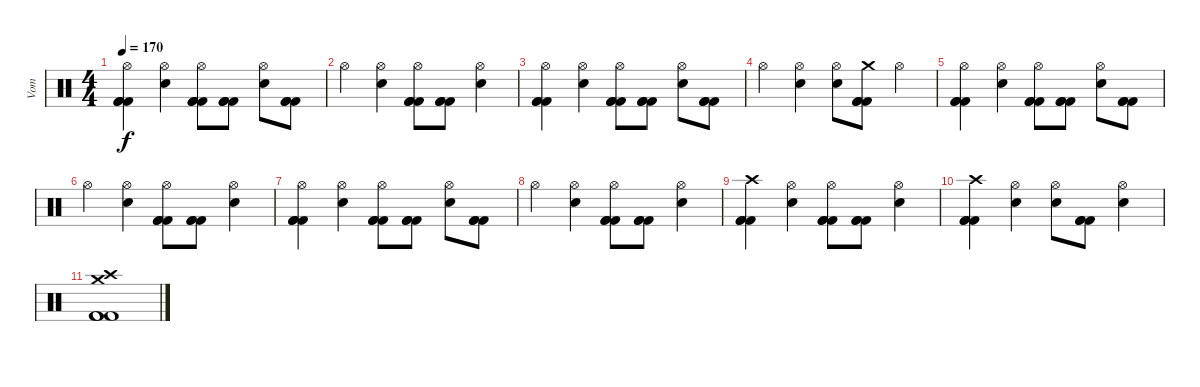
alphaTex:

\track ("Vom" "Vom") {instrument percussion}
\staff {score}
\articulation defaults
\ts (4 4)
\tempo 170
\clef neutral
\ks c
("Hi-Hat (open)" "Kick (hit) 2" "Kick (hit) 2" "Kick (hit) 2").4{dy f} ("Hi-Hat (open)" "Snare (hit) 2").4 ("Hi-Hat (open)" "Kick (hit) 2" "Kick (hit) 2" "Kick (hit) 2").8 ("Kick (hit) 2" "Kick (hit) 2" "Kick (hit) 2").8 ("Hi-Hat (open)" "Snare (hit) 2").8 ("Kick (hit) 2" "Kick (hit) 2" "Kick (hit) 2").8 |
"Hi-Hat (open)".4 ("Hi-Hat (open)" "Snare (hit) 2").4 ("Hi-Hat (open)" "Kick (hit) 2" "Kick (hit) 2" "Kick (hit) 2").8 ("Kick (hit) 2" "Kick (hit) 2" "Kick (hit) 2").8 ("Hi-Hat (open)" "Snare (hit) 2").4 |
("Hi-Hat (open)" "Kick (hit) 2" "Kick (hit) 2" "Kick (hit) 2").4 ("Hi-Hat (open)" "Snare (hit) 2").4 ("Hi-Hat (open)" "Kick (hit) 2" "Kick (hit) 2" "Kick (hit) 2").8 ("Kick (hit) 2" "Kick (hit) 2" "Kick (hit) 2").8 ("Hi-Hat (open)" "Snare (hit) 2").8 ("Kick (hit) 2" "Kick (hit) 2" "Kick (hit) 2").8 |
"Hi-Hat (open)".4 ("Hi-Hat (open)" "Snare (hit) 2").4 ("Hi-Hat (open)" "Snare (hit) 2").8 ("Crash medium (hit)" "Kick (hit) 2" "Kick (hit) 2" "Kick (hit) 2").8 "Hi-Hat (open)".4 |
("Hi-Hat (open)" "Kick (hit) 2" "Kick (hit) 2" "Kick (hit) 2").4 ("Hi-Hat (open)" "Snare (hit) 2").4 ("Hi-Hat (open)" "Kick (hit) 2" "Kick (hit) 2" "Kick (hit) 2").8 ("Kick (hit) 2" "Kick (hit) 2" "Kick (hit) 2").8 ("Hi-Hat (open)" "Snare (hit) 2").8 ("Kick (hit) 2" "Kick (hit) 2" "Kick (hit) 2").8 |
"Hi-Hat (open)".4 ("Hi-Hat (open)" "Snare (hit) 2").4 ("Hi-Hat (open)" "Kick (hit) 2" "Kick (hit) 2" "Kick (hit) 2").8 ("Kick (hit) 2" "Kick (hit) 2" "Kick (hit) 2").8 ("Hi-Hat (open)" "Snare (hit) 2").4 |
("Hi-Hat (open)" "Kick (hit) 2" "Kick (hit) 2" "Kick (hit) 2").4 ("Hi-Hat (open)" "Snare (hit) 2").4 ("Hi-Hat (open)" "Kick (hit) 2" "Kick (hit) 2" "Kick (hit) 2").8 ("Kick (hit) 2" "Kick (hit) 2" "Kick (hit) 2").8 ("Hi-Hat (open)" "Snare (hit) 2").8 ("Kick (hit) 2" "Kick (hit) 2" "Kick (hit) 2").8 |
"Hi-Hat (open)".4 ("Hi-Hat (open)" "Snare (hit) 2").4 ("Hi-Hat (open)" "Kick (hit) 2" "Kick (hit) 2" "Kick (hit) 2").8 ("Kick (hit) 2" "Kick (hit) 2" "Kick (hit) 2").8 ("Hi-Hat (open)" "Snare (hit) 2").4 |
("Crash high (hit)" "Kick (hit) 2" "Kick (hit) 2" "Kick (hit) 2").4 ("Hi-Hat (open)" "Snare (hit) 2").4 ("Hi-Hat (open)" "Kick (hit) 2" "Kick (hit) 2" "Kick (hit) 2").8 ("Kick (hit) 2" "Kick (hit) 2" "Kick (hit) 2").8 ("Hi-Hat (open)" "Snare (hit) 2").4 |
("Crash high (hit)" "Kick (hit) 2" "Kick (hit) 2" "Kick (hit) 2").4 ("Hi-Hat (open)" "Snare (hit) 2").4 ("Hi-Hat (open)" "Snare (hit) 2").8 ("Kick (hit) 2" "Kick (hit) 2" "Kick (hit) 2").8 ("Hi-Hat (open)" "Snare (hit) 2").4 |
("Crash medium (hit)" "Crash high (hit)" "Kick (hit) 2" "Kick (hit) 2" "Kick (hit) 2").1
